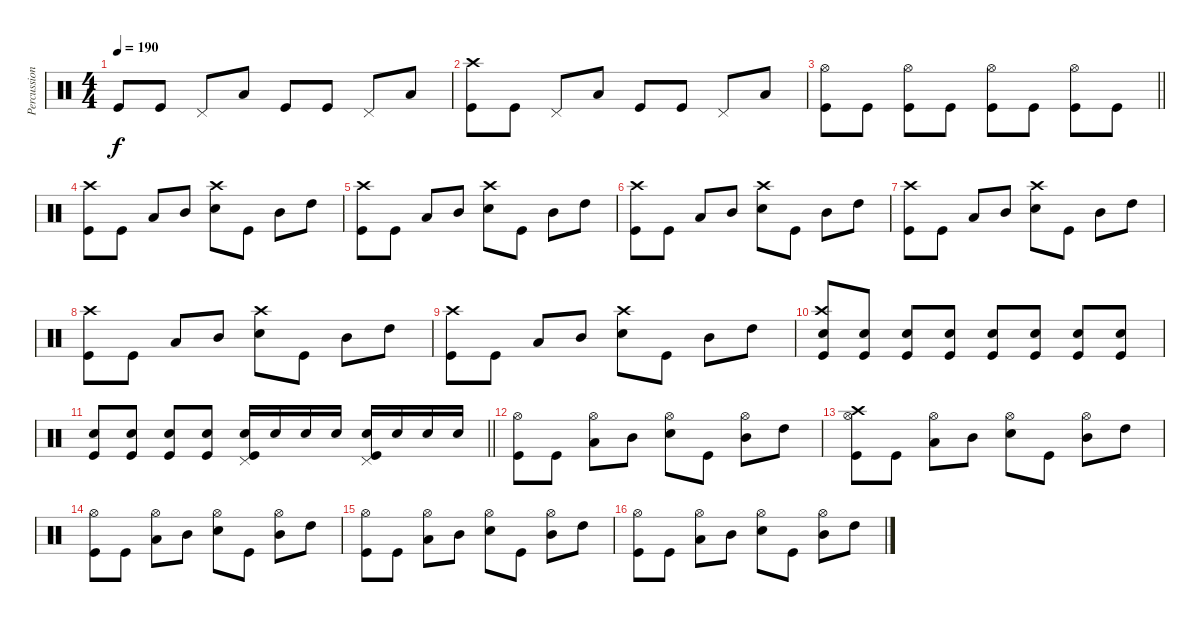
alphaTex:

\track ("Percussion" "Percussion") {instrument percussion}
\staff {score}
\articulation defaults
\ts (4 4)
\tempo 190
\clef neutral
\ks c "Kick (hit)".8{dy f} "Kick (hit)".8 "Pedal Hi-Hat (hit)".8 "Low Tom (hit)".8 "Kick (hit)".8 "Kick (hit)".8 "Pedal Hi-Hat (hit)".8 "Low Tom (hit)".8
|
("Crash high (hit)" "Kick (hit)").8 "Kick (hit)".8 "Pedal Hi-Hat (hit)".8 "Low Tom (hit)".8 "Kick (hit)".8 "Kick (hit)".8 "Pedal Hi-Hat (hit)".8 "Low Tom (hit)".8 |
\barLineRight lightlight
("Hi-Hat (open)" "Kick (hit)").8 "Kick (hit)".8 ("Hi-Hat (open)" "Kick (hit)").8 "Kick (hit)".8 ("Hi-Hat (open)" "Kick (hit)").8 "Kick (hit)".8 ("Hi-Hat (open)" "Kick (hit)").8 "Kick (hit)".8 |
("Crash high (hit)" "Kick (hit)").8 "Kick (hit)".8 "Low Tom (hit)".8 "Mid Tom (hit)".8 ("Crash high (hit)" "Snare (hit) 2").8 "Kick (hit)".8 "Mid Tom (hit)".8 "High Tom (hit)".8 |
("Crash high (hit)" "Kick (hit)").8 "Kick (hit)".8 "Low Tom (hit)".8 "Mid Tom (hit)".8 ("Crash high (hit)" "Snare (hit) 2").8 "Kick (hit)".8 "Mid Tom (hit)".8 "High Tom (hit)".8 |
("Crash high (hit)" "Kick (hit)").8 "Kick (hit)".8 "Low Tom (hit)".8 "Mid Tom (hit)".8 ("Crash high (hit)" "Snare (hit) 2").8 "Kick (hit)".8 "Mid Tom (hit)".8 "High Tom (hit)".8 |
("Crash high (hit)" "Kick (hit)").8 "Kick (hit)".8 "Low Tom (hit)".8 "Mid Tom (hit)".8 ("Crash high (hit)" "Snare (hit) 2").8 "Kick (hit)".8 "Mid Tom (hit)".8 "High Tom (hit)".8 |
("Crash high (hit)" "Kick (hit)").8 "Kick (hit)".8 "Low Tom (hit)".8 "Mid Tom (hit)".8 ("Crash high (hit)" "Snare (hit) 2").8 "Kick (hit)".8 "Mid Tom (hit)".8 "High Tom (hit)".8 |
("Crash high (hit)" "Kick (hit)").8 "Kick (hit)".8 "Low Tom (hit)".8 "Mid Tom (hit)".8 ("Crash high (hit)" "Snare (hit) 2").8 "Kick (hit)".8 "Mid Tom (hit)".8 "High Tom (hit)".8 |
("Crash high (hit)" "Snare (hit) 2" "Kick (hit)").8 ("Snare (hit) 2" "Kick (hit)").8 ("Snare (hit) 2" "Kick (hit)").8 ("Snare (hit) 2" "Kick (hit)").8 ("Snare (hit) 2" "Kick (hit)").8 ("Snare (hit) 2" "Kick (hit)").8 ("Snare (hit) 2" "Kick (hit)").8 ("Snare (hit) 2" "Kick (hit)").8 |
\barLineRight lightlight
("Snare (hit) 2" "Kick (hit)").8 ("Snare (hit) 2" "Kick (hit)").8 ("Snare (hit) 2" "Kick (hit)").8 ("Snare (hit) 2" "Kick (hit)").8 ("Pedal Hi-Hat (hit)" "Snare (hit) 2" "Kick (hit)").16 "Snare (hit) 2".16 "Snare (hit) 2".16 "Snare (hit) 2".16 ("Pedal Hi-Hat (hit)" "Snare (hit) 2" "Kick (hit)").16 "Snare (hit) 2".16 "Snare (hit) 2".16 "Snare (hit) 2".16 |
("Hi-Hat (open)" "Kick (hit)").8 "Kick (hit)".8 ("Hi-Hat (open)" "Low Tom (hit)").8 "Mid Tom (hit)".8 ("Snare (hit) 2" "Hi-Hat (open)").8 "Kick (hit)".8 ("Hi-Hat (open)" "Mid Tom (hit)").8 "High Tom (hit)".8 |
("Crash high (hit)" "Hi-Hat (open)" "Kick (hit)").8 "Kick (hit)".8 ("Hi-Hat (open)" "Low Tom (hit)").8 "Mid Tom (hit)".8 ("Snare (hit) 2" "Hi-Hat (open)").8 "Kick (hit)".8 ("Hi-Hat (open)" "Mid Tom (hit)").8 "High Tom (hit)".8 |
("Hi-Hat (open)" "Kick (hit)").8 "Kick (hit)".8 ("Hi-Hat (open)" "Low Tom (hit)").8 "Mid Tom (hit)".8 ("Snare (hit) 2" "Hi-Hat (open)").8 "Kick (hit)".8 ("Hi-Hat (open)" "Mid Tom (hit)").8 "High Tom (hit)".8 |
("Hi-Hat (open)" "Kick (hit)").8 "Kick (hit)".8 ("Hi-Hat (open)" "Low Tom (hit)").8 "Mid Tom (hit)".8 ("Snare (hit) 2" "Hi-Hat (open)").8 "Kick (hit)".8 ("Hi-Hat (open)" "Mid Tom (hit)").8 "High Tom (hit)".8 |
("Hi-Hat (open)" "Kick (hit)").8 "Kick (hit)".8 ("Hi-Hat (open)" "Low Tom (hit)").8 "Mid Tom (hit)".8 ("Snare (hit) 2" "Hi-Hat (open)").8 "Kick (hit)".8 ("Hi-Hat (open)" "Mid Tom (hit)").8 "High Tom (hit)".8
